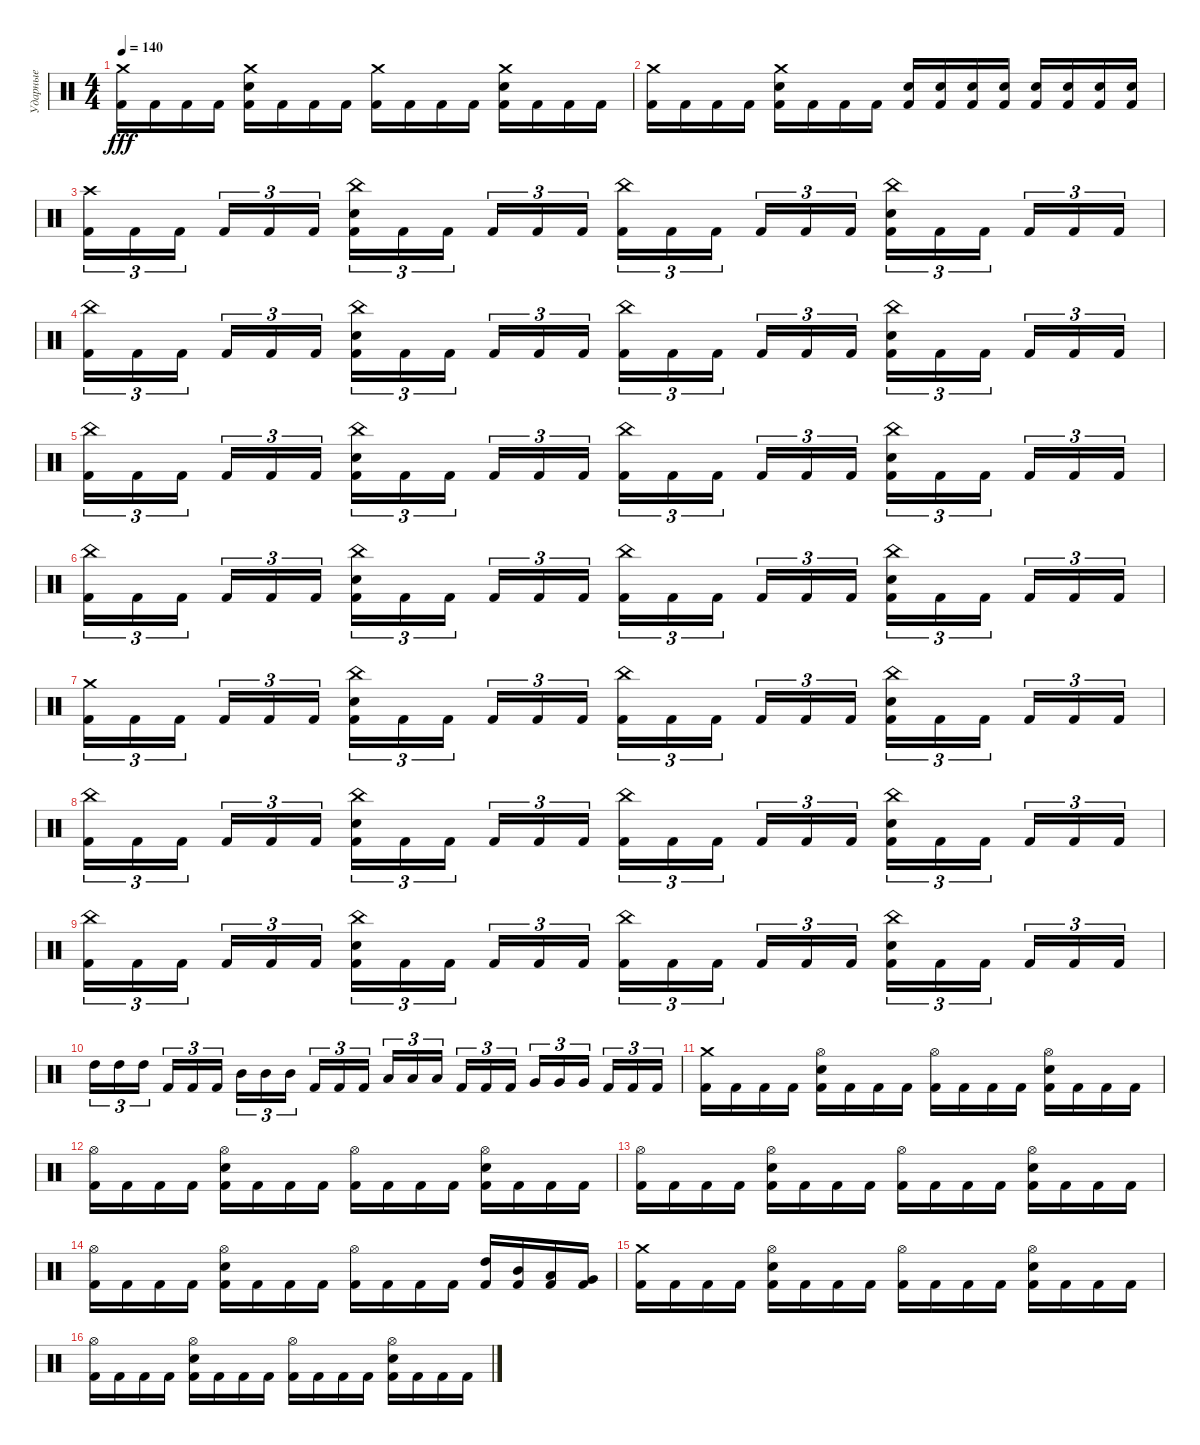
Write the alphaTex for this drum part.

\track ("Ударные" "Ударные") {instrument percussion}
\staff {score}
\articulation defaults
\ts (4 4)
\tempo 140
\clef neutral
\ks c
("Crash medium (hit)" "Kick (hit) 2").16{dy fff} "Kick (hit) 2".16 "Kick (hit) 2".16 "Kick (hit) 2".16 ("Crash medium (hit)" "Electric Snare (hit)" "Kick (hit) 2").16 "Kick (hit) 2".16 "Kick (hit) 2".16 "Kick (hit) 2".16 ("Crash medium (hit)" "Kick (hit) 2").16 "Kick (hit) 2".16 "Kick (hit) 2".16 "Kick (hit) 2".16 ("Crash medium (hit)" "Electric Snare (hit)" "Kick (hit) 2").16 "Kick (hit) 2".16 "Kick (hit) 2".16 "Kick (hit) 2".16 |
("Crash medium (hit)" "Kick (hit) 2").16 "Kick (hit) 2".16 "Kick (hit) 2".16 "Kick (hit) 2".16 ("Crash medium (hit)" "Electric Snare (hit)" "Kick (hit) 2").16 "Kick (hit) 2".16 "Kick (hit) 2".16 "Kick (hit) 2".16 ("Electric Snare (hit)" "Kick (hit) 2").16 ("Electric Snare (hit)" "Kick (hit) 2").16 ("Electric Snare (hit)" "Kick (hit) 2").16 ("Electric Snare (hit)" "Kick (hit) 2").16 ("Electric Snare (hit)" "Kick (hit) 2").16 ("Electric Snare (hit)" "Kick (hit) 2").16 ("Electric Snare (hit)" "Kick (hit) 2").16 ("Electric Snare (hit)" "Kick (hit) 2").16 |
("Crash high (hit)" "Kick (hit) 2").16{tu (3 2)} "Kick (hit) 2".16{tu (3 2)} "Kick (hit) 2".16{tu (3 2) beam splitsecondary} "Kick (hit) 2".16{tu (3 2)} "Kick (hit) 2".16{tu (3 2)} "Kick (hit) 2".16{tu (3 2)} ("China (hit)" "Electric Snare (hit)" "Kick (hit) 2").16{tu (3 2)} "Kick (hit) 2".16{tu (3 2)} "Kick (hit) 2".16{tu (3 2) beam splitsecondary} "Kick (hit) 2".16{tu (3 2)} "Kick (hit) 2".16{tu (3 2)} "Kick (hit) 2".16{tu (3 2)} ("China (hit)" "Kick (hit) 2").16{tu (3 2)} "Kick (hit) 2".16{tu (3 2)} "Kick (hit) 2".16{tu (3 2) beam splitsecondary} "Kick (hit) 2".16{tu (3 2)} "Kick (hit) 2".16{tu (3 2)} "Kick (hit) 2".16{tu (3 2)} ("China (hit)" "Electric Snare (hit)" "Kick (hit) 2").16{tu (3 2)} "Kick (hit) 2".16{tu (3 2)} "Kick (hit) 2".16{tu (3 2) beam splitsecondary} "Kick (hit) 2".16{tu (3 2)} "Kick (hit) 2".16{tu (3 2)} "Kick (hit) 2".16{tu (3 2)} |
("China (hit)" "Kick (hit) 2").16{tu (3 2)} "Kick (hit) 2".16{tu (3 2)} "Kick (hit) 2".16{tu (3 2) beam splitsecondary} "Kick (hit) 2".16{tu (3 2)} "Kick (hit) 2".16{tu (3 2)} "Kick (hit) 2".16{tu (3 2)} ("China (hit)" "Electric Snare (hit)" "Kick (hit) 2").16{tu (3 2)} "Kick (hit) 2".16{tu (3 2)} "Kick (hit) 2".16{tu (3 2) beam splitsecondary} "Kick (hit) 2".16{tu (3 2)} "Kick (hit) 2".16{tu (3 2)} "Kick (hit) 2".16{tu (3 2)} ("China (hit)" "Kick (hit) 2").16{tu (3 2)} "Kick (hit) 2".16{tu (3 2)} "Kick (hit) 2".16{tu (3 2) beam splitsecondary} "Kick (hit) 2".16{tu (3 2)} "Kick (hit) 2".16{tu (3 2)} "Kick (hit) 2".16{tu (3 2)} ("China (hit)" "Electric Snare (hit)" "Kick (hit) 2").16{tu (3 2)} "Kick (hit) 2".16{tu (3 2)} "Kick (hit) 2".16{tu (3 2) beam splitsecondary} "Kick (hit) 2".16{tu (3 2)} "Kick (hit) 2".16{tu (3 2)} "Kick (hit) 2".16{tu (3 2)} |
("China (hit)" "Kick (hit) 2").16{tu (3 2)} "Kick (hit) 2".16{tu (3 2)} "Kick (hit) 2".16{tu (3 2) beam splitsecondary} "Kick (hit) 2".16{tu (3 2)} "Kick (hit) 2".16{tu (3 2)} "Kick (hit) 2".16{tu (3 2)} ("China (hit)" "Electric Snare (hit)" "Kick (hit) 2").16{tu (3 2)} "Kick (hit) 2".16{tu (3 2)} "Kick (hit) 2".16{tu (3 2) beam splitsecondary} "Kick (hit) 2".16{tu (3 2)} "Kick (hit) 2".16{tu (3 2)} "Kick (hit) 2".16{tu (3 2)} ("China (hit)" "Kick (hit) 2").16{tu (3 2)} "Kick (hit) 2".16{tu (3 2)} "Kick (hit) 2".16{tu (3 2) beam splitsecondary} "Kick (hit) 2".16{tu (3 2)} "Kick (hit) 2".16{tu (3 2)} "Kick (hit) 2".16{tu (3 2)} ("China (hit)" "Electric Snare (hit)" "Kick (hit) 2").16{tu (3 2)} "Kick (hit) 2".16{tu (3 2)} "Kick (hit) 2".16{tu (3 2) beam splitsecondary} "Kick (hit) 2".16{tu (3 2)} "Kick (hit) 2".16{tu (3 2)} "Kick (hit) 2".16{tu (3 2)} |
("China (hit)" "Kick (hit) 2").16{tu (3 2)} "Kick (hit) 2".16{tu (3 2)} "Kick (hit) 2".16{tu (3 2) beam splitsecondary} "Kick (hit) 2".16{tu (3 2)} "Kick (hit) 2".16{tu (3 2)} "Kick (hit) 2".16{tu (3 2)} ("China (hit)" "Electric Snare (hit)" "Kick (hit) 2").16{tu (3 2)} "Kick (hit) 2".16{tu (3 2)} "Kick (hit) 2".16{tu (3 2) beam splitsecondary} "Kick (hit) 2".16{tu (3 2)} "Kick (hit) 2".16{tu (3 2)} "Kick (hit) 2".16{tu (3 2)} ("China (hit)" "Kick (hit) 2").16{tu (3 2)} "Kick (hit) 2".16{tu (3 2)} "Kick (hit) 2".16{tu (3 2) beam splitsecondary} "Kick (hit) 2".16{tu (3 2)} "Kick (hit) 2".16{tu (3 2)} "Kick (hit) 2".16{tu (3 2)} ("China (hit)" "Electric Snare (hit)" "Kick (hit) 2").16{tu (3 2)} "Kick (hit) 2".16{tu (3 2)} "Kick (hit) 2".16{tu (3 2) beam splitsecondary} "Kick (hit) 2".16{tu (3 2)} "Kick (hit) 2".16{tu (3 2)} "Kick (hit) 2".16{tu (3 2)} |
("Crash medium (hit)" "Kick (hit) 2").16{tu (3 2)} "Kick (hit) 2".16{tu (3 2)} "Kick (hit) 2".16{tu (3 2) beam splitsecondary} "Kick (hit) 2".16{tu (3 2)} "Kick (hit) 2".16{tu (3 2)} "Kick (hit) 2".16{tu (3 2)} ("China (hit)" "Electric Snare (hit)" "Kick (hit) 2").16{tu (3 2)} "Kick (hit) 2".16{tu (3 2)} "Kick (hit) 2".16{tu (3 2) beam splitsecondary} "Kick (hit) 2".16{tu (3 2)} "Kick (hit) 2".16{tu (3 2)} "Kick (hit) 2".16{tu (3 2)} ("China (hit)" "Kick (hit) 2").16{tu (3 2)} "Kick (hit) 2".16{tu (3 2)} "Kick (hit) 2".16{tu (3 2) beam splitsecondary} "Kick (hit) 2".16{tu (3 2)} "Kick (hit) 2".16{tu (3 2)} "Kick (hit) 2".16{tu (3 2)} ("China (hit)" "Electric Snare (hit)" "Kick (hit) 2").16{tu (3 2)} "Kick (hit) 2".16{tu (3 2)} "Kick (hit) 2".16{tu (3 2) beam splitsecondary} "Kick (hit) 2".16{tu (3 2)} "Kick (hit) 2".16{tu (3 2)} "Kick (hit) 2".16{tu (3 2)} |
("China (hit)" "Kick (hit) 2").16{tu (3 2)} "Kick (hit) 2".16{tu (3 2)} "Kick (hit) 2".16{tu (3 2) beam splitsecondary} "Kick (hit) 2".16{tu (3 2)} "Kick (hit) 2".16{tu (3 2)} "Kick (hit) 2".16{tu (3 2)} ("China (hit)" "Electric Snare (hit)" "Kick (hit) 2").16{tu (3 2)} "Kick (hit) 2".16{tu (3 2)} "Kick (hit) 2".16{tu (3 2) beam splitsecondary} "Kick (hit) 2".16{tu (3 2)} "Kick (hit) 2".16{tu (3 2)} "Kick (hit) 2".16{tu (3 2)} ("China (hit)" "Kick (hit) 2").16{tu (3 2)} "Kick (hit) 2".16{tu (3 2)} "Kick (hit) 2".16{tu (3 2) beam splitsecondary} "Kick (hit) 2".16{tu (3 2)} "Kick (hit) 2".16{tu (3 2)} "Kick (hit) 2".16{tu (3 2)} ("China (hit)" "Electric Snare (hit)" "Kick (hit) 2").16{tu (3 2)} "Kick (hit) 2".16{tu (3 2)} "Kick (hit) 2".16{tu (3 2) beam splitsecondary} "Kick (hit) 2".16{tu (3 2)} "Kick (hit) 2".16{tu (3 2)} "Kick (hit) 2".16{tu (3 2)} |
("China (hit)" "Kick (hit) 2").16{tu (3 2)} "Kick (hit) 2".16{tu (3 2)} "Kick (hit) 2".16{tu (3 2) beam splitsecondary} "Kick (hit) 2".16{tu (3 2)} "Kick (hit) 2".16{tu (3 2)} "Kick (hit) 2".16{tu (3 2)} ("China (hit)" "Electric Snare (hit)" "Kick (hit) 2").16{tu (3 2)} "Kick (hit) 2".16{tu (3 2)} "Kick (hit) 2".16{tu (3 2) beam splitsecondary} "Kick (hit) 2".16{tu (3 2)} "Kick (hit) 2".16{tu (3 2)} "Kick (hit) 2".16{tu (3 2)} ("China (hit)" "Kick (hit) 2").16{tu (3 2)} "Kick (hit) 2".16{tu (3 2)} "Kick (hit) 2".16{tu (3 2) beam splitsecondary} "Kick (hit) 2".16{tu (3 2)} "Kick (hit) 2".16{tu (3 2)} "Kick (hit) 2".16{tu (3 2)} ("China (hit)" "Electric Snare (hit)" "Kick (hit) 2").16{tu (3 2)} "Kick (hit) 2".16{tu (3 2)} "Kick (hit) 2".16{tu (3 2) beam splitsecondary} "Kick (hit) 2".16{tu (3 2)} "Kick (hit) 2".16{tu (3 2)} "Kick (hit) 2".16{tu (3 2)} |
"High Tom (hit)".16{tu (3 2)} "High Tom (hit)".16{tu (3 2)} "High Tom (hit)".16{tu (3 2) beam splitsecondary} "Kick (hit) 2".16{tu (3 2)} "Kick (hit) 2".16{tu (3 2)} "Kick (hit) 2".16{tu (3 2)} "Mid Tom (hit)".16{tu (3 2)} "Mid Tom (hit)".16{tu (3 2)} "Mid Tom (hit)".16{tu (3 2) beam splitsecondary} "Kick (hit) 2".16{tu (3 2)} "Kick (hit) 2".16{tu (3 2)} "Kick (hit) 2".16{tu (3 2)} "Low Tom (hit)".16{tu (3 2)} "Low Tom (hit)".16{tu (3 2)} "Low Tom (hit)".16{tu (3 2) beam splitsecondary} "Kick (hit) 2".16{tu (3 2)} "Kick (hit) 2".16{tu (3 2)} "Kick (hit) 2".16{tu (3 2)} "Very Low Tom (hit)".16{tu (3 2)} "Very Low Tom (hit)".16{tu (3 2)} "Very Low Tom (hit)".16{tu (3 2) beam splitsecondary} "Kick (hit) 2".16{tu (3 2)} "Kick (hit) 2".16{tu (3 2)} "Kick (hit) 2".16{tu (3 2)} |
("Crash medium (hit)" "Kick (hit) 2").16 "Kick (hit) 2".16 "Kick (hit) 2".16 "Kick (hit) 2".16 ("Hi-Hat (open)" "Electric Snare (hit)" "Kick (hit) 2").16 "Kick (hit) 2".16 "Kick (hit) 2".16 "Kick (hit) 2".16 ("Hi-Hat (open)" "Kick (hit) 2").16 "Kick (hit) 2".16 "Kick (hit) 2".16 "Kick (hit) 2".16 ("Hi-Hat (open)" "Electric Snare (hit)" "Kick (hit) 2").16 "Kick (hit) 2".16 "Kick (hit) 2".16 "Kick (hit) 2".16 |
("Hi-Hat (open)" "Kick (hit) 2").16 "Kick (hit) 2".16 "Kick (hit) 2".16 "Kick (hit) 2".16 ("Hi-Hat (open)" "Electric Snare (hit)" "Kick (hit) 2").16 "Kick (hit) 2".16 "Kick (hit) 2".16 "Kick (hit) 2".16 ("Hi-Hat (open)" "Kick (hit) 2").16 "Kick (hit) 2".16 "Kick (hit) 2".16 "Kick (hit) 2".16 ("Hi-Hat (open)" "Electric Snare (hit)" "Kick (hit) 2").16 "Kick (hit) 2".16 "Kick (hit) 2".16 "Kick (hit) 2".16 |
("Hi-Hat (open)" "Kick (hit) 2").16 "Kick (hit) 2".16 "Kick (hit) 2".16 "Kick (hit) 2".16 ("Hi-Hat (open)" "Electric Snare (hit)" "Kick (hit) 2").16 "Kick (hit) 2".16 "Kick (hit) 2".16 "Kick (hit) 2".16 ("Hi-Hat (open)" "Kick (hit) 2").16 "Kick (hit) 2".16 "Kick (hit) 2".16 "Kick (hit) 2".16 ("Hi-Hat (open)" "Electric Snare (hit)" "Kick (hit) 2").16 "Kick (hit) 2".16 "Kick (hit) 2".16 "Kick (hit) 2".16 |
("Hi-Hat (open)" "Kick (hit) 2").16 "Kick (hit) 2".16 "Kick (hit) 2".16 "Kick (hit) 2".16 ("Hi-Hat (open)" "Electric Snare (hit)" "Kick (hit) 2").16 "Kick (hit) 2".16 "Kick (hit) 2".16 "Kick (hit) 2".16 ("Hi-Hat (open)" "Kick (hit) 2").16 "Kick (hit) 2".16 "Kick (hit) 2".16 "Kick (hit) 2".16 ("High Tom (hit)" "Kick (hit) 2").16 ("Mid Tom (hit)" "Kick (hit) 2").16 ("Low Tom (hit)" "Kick (hit) 2").16 ("Very Low Tom (hit)" "Kick (hit) 2").16 |
("Crash medium (hit)" "Kick (hit) 2").16 "Kick (hit) 2".16 "Kick (hit) 2".16 "Kick (hit) 2".16 ("Hi-Hat (open)" "Electric Snare (hit)" "Kick (hit) 2").16 "Kick (hit) 2".16 "Kick (hit) 2".16 "Kick (hit) 2".16 ("Hi-Hat (open)" "Kick (hit) 2").16 "Kick (hit) 2".16 "Kick (hit) 2".16 "Kick (hit) 2".16 ("Hi-Hat (open)" "Electric Snare (hit)" "Kick (hit) 2").16 "Kick (hit) 2".16 "Kick (hit) 2".16 "Kick (hit) 2".16 |
("Hi-Hat (open)" "Kick (hit) 2").16 "Kick (hit) 2".16 "Kick (hit) 2".16 "Kick (hit) 2".16 ("Hi-Hat (open)" "Electric Snare (hit)" "Kick (hit) 2").16 "Kick (hit) 2".16 "Kick (hit) 2".16 "Kick (hit) 2".16 ("Hi-Hat (open)" "Kick (hit) 2").16 "Kick (hit) 2".16 "Kick (hit) 2".16 "Kick (hit) 2".16 ("Hi-Hat (open)" "Electric Snare (hit)" "Kick (hit) 2").16 "Kick (hit) 2".16 "Kick (hit) 2".16 "Kick (hit) 2".16
